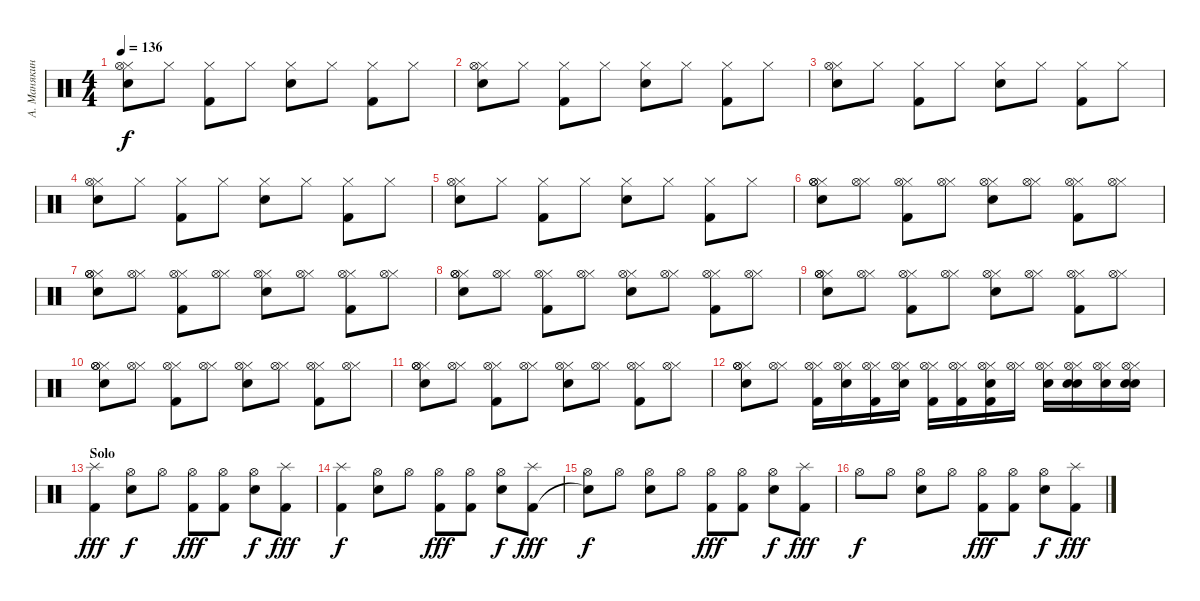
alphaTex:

\track ("А. Манякин" "А. Манякин") {instrument percussion}
\staff {score}
\articulation defaults
\ts (4 4)
\tempo 136
\clef neutral
\ks c
("Hi-Hat (closed)" "Snare (hit) 2" "Hi-Hat (open)").8{dy f} "Hi-Hat (closed)".8 ("Hi-Hat (closed)" "Kick (hit) 2").8 "Hi-Hat (closed)".8 ("Hi-Hat (closed)" "Snare (hit) 2").8 "Hi-Hat (closed)".8 ("Hi-Hat (closed)" "Kick (hit) 2").8 "Hi-Hat (closed)".8 |
("Hi-Hat (closed)" "Snare (hit) 2" "Hi-Hat (open)").8 "Hi-Hat (closed)".8 ("Hi-Hat (closed)" "Kick (hit) 2").8 "Hi-Hat (closed)".8 ("Hi-Hat (closed)" "Snare (hit) 2").8 "Hi-Hat (closed)".8 ("Hi-Hat (closed)" "Kick (hit) 2").8 "Hi-Hat (closed)".8 |
("Hi-Hat (closed)" "Snare (hit) 2" "Hi-Hat (open)").8 "Hi-Hat (closed)".8 ("Hi-Hat (closed)" "Kick (hit) 2").8 "Hi-Hat (closed)".8 ("Hi-Hat (closed)" "Snare (hit) 2").8 "Hi-Hat (closed)".8 ("Hi-Hat (closed)" "Kick (hit) 2").8 "Hi-Hat (closed)".8 |
("Hi-Hat (closed)" "Snare (hit) 2" "Hi-Hat (open)").8 "Hi-Hat (closed)".8 ("Hi-Hat (closed)" "Kick (hit) 2").8 "Hi-Hat (closed)".8 ("Hi-Hat (closed)" "Snare (hit) 2").8 "Hi-Hat (closed)".8 ("Hi-Hat (closed)" "Kick (hit) 2").8 "Hi-Hat (closed)".8 |
("Hi-Hat (closed)" "Snare (hit) 2" "Hi-Hat (open)").8 "Hi-Hat (closed)".8 ("Hi-Hat (closed)" "Kick (hit) 2").8 "Hi-Hat (closed)".8 ("Hi-Hat (closed)" "Snare (hit) 2").8 "Hi-Hat (closed)".8 ("Hi-Hat (closed)" "Kick (hit) 2").8 "Hi-Hat (closed)".8 |
("Hi-Hat (closed)" "Snare (hit) 2" "Hi-Hat (open)" "Hi-Hat (open)").8 ("Hi-Hat (closed)" "Hi-Hat (open)").8 ("Hi-Hat (closed)" "Kick (hit) 2" "Hi-Hat (open)").8 ("Hi-Hat (closed)" "Hi-Hat (open)").8 ("Hi-Hat (closed)" "Snare (hit) 2" "Hi-Hat (open)").8 ("Hi-Hat (closed)" "Hi-Hat (open)").8 ("Hi-Hat (closed)" "Kick (hit) 2" "Hi-Hat (open)").8 ("Hi-Hat (closed)" "Hi-Hat (open)").8 |
("Hi-Hat (closed)" "Snare (hit) 2" "Hi-Hat (open)" "Hi-Hat (open)").8 ("Hi-Hat (closed)" "Hi-Hat (open)").8 ("Hi-Hat (closed)" "Kick (hit) 2" "Hi-Hat (open)").8 ("Hi-Hat (closed)" "Hi-Hat (open)").8 ("Hi-Hat (closed)" "Snare (hit) 2" "Hi-Hat (open)").8 ("Hi-Hat (closed)" "Hi-Hat (open)").8 ("Hi-Hat (closed)" "Kick (hit) 2" "Hi-Hat (open)").8 ("Hi-Hat (closed)" "Hi-Hat (open)").8 |
("Hi-Hat (closed)" "Snare (hit) 2" "Hi-Hat (open)" "Hi-Hat (open)").8 ("Hi-Hat (closed)" "Hi-Hat (open)").8 ("Hi-Hat (closed)" "Kick (hit) 2" "Hi-Hat (open)").8 ("Hi-Hat (closed)" "Hi-Hat (open)").8 ("Hi-Hat (closed)" "Snare (hit) 2" "Hi-Hat (open)").8 ("Hi-Hat (closed)" "Hi-Hat (open)").8 ("Hi-Hat (closed)" "Kick (hit) 2" "Hi-Hat (open)").8 ("Hi-Hat (closed)" "Hi-Hat (open)").8 |
("Hi-Hat (closed)" "Snare (hit) 2" "Hi-Hat (open)" "Hi-Hat (open)").8 ("Hi-Hat (closed)" "Hi-Hat (open)").8 ("Hi-Hat (closed)" "Kick (hit) 2" "Hi-Hat (open)").8 ("Hi-Hat (closed)" "Hi-Hat (open)").8 ("Hi-Hat (closed)" "Snare (hit) 2" "Hi-Hat (open)").8 ("Hi-Hat (closed)" "Hi-Hat (open)").8 ("Hi-Hat (closed)" "Kick (hit) 2" "Hi-Hat (open)").8 ("Hi-Hat (closed)" "Hi-Hat (open)").8 |
("Hi-Hat (closed)" "Snare (hit) 2" "Hi-Hat (open)" "Hi-Hat (open)").8 ("Hi-Hat (closed)" "Hi-Hat (open)").8 ("Hi-Hat (closed)" "Kick (hit) 2" "Hi-Hat (open)").8 ("Hi-Hat (closed)" "Hi-Hat (open)").8 ("Hi-Hat (closed)" "Snare (hit) 2" "Hi-Hat (open)").8 ("Hi-Hat (closed)" "Hi-Hat (open)").8 ("Hi-Hat (closed)" "Kick (hit) 2" "Hi-Hat (open)").8 ("Hi-Hat (closed)" "Hi-Hat (open)").8 |
("Hi-Hat (closed)" "Snare (hit) 2" "Hi-Hat (open)" "Hi-Hat (open)").8 ("Hi-Hat (closed)" "Hi-Hat (open)").8 ("Hi-Hat (closed)" "Kick (hit) 2" "Hi-Hat (open)").8 ("Hi-Hat (closed)" "Hi-Hat (open)").8 ("Hi-Hat (closed)" "Snare (hit) 2" "Hi-Hat (open)").8 ("Hi-Hat (closed)" "Hi-Hat (open)").8 ("Hi-Hat (closed)" "Kick (hit) 2" "Hi-Hat (open)").8 ("Hi-Hat (closed)" "Hi-Hat (open)").8 |
("Hi-Hat (closed)" "Snare (hit) 2" "Hi-Hat (open)" "Hi-Hat (open)").8 ("Hi-Hat (closed)" "Hi-Hat (open)").8 ("Hi-Hat (closed)" "Kick (hit) 2" "Hi-Hat (open)").16 ("Hi-Hat (closed)" "Snare (hit) 2" "Hi-Hat (open)").16 ("Hi-Hat (closed)" "Kick (hit) 2" "Hi-Hat (open)").16 ("Hi-Hat (closed)" "Snare (hit) 2" "Hi-Hat (open)").16 ("Hi-Hat (closed)" "Kick (hit) 2" "Hi-Hat (open)").16 ("Hi-Hat (closed)" "Kick (hit) 2" "Hi-Hat (open)").16 ("Hi-Hat (closed)" "Kick (hit) 2" "Snare (hit) 2" "Hi-Hat (open)").16 ("Hi-Hat (closed)" "Hi-Hat (open)").16 ("Hi-Hat (closed)" "Snare (hit) 2" "Hi-Hat (open)").16 ("Hi-Hat (closed)" "Snare (hit) 2" "Snare (hit) 2" "Hi-Hat (open)").16 ("Hi-Hat (closed)" "Snare (hit) 2" "Hi-Hat (open)").16 ("Hi-Hat (closed)" "Snare (hit) 2" "Snare (hit) 2" "Hi-Hat (open)").16 |
\section ("" "Solo")
("Kick (hit) 2" "Splash (hit)").4{dy fff} ("Hi-Hat (open)" "Electric Snare (hit)").8{dy f} "Hi-Hat (open)".8 ("Kick (hit) 2" "Hi-Hat (open)").8{dy fff} ("Kick (hit) 2" "Hi-Hat (open)").8 ("Hi-Hat (open)" "Electric Snare (hit)").8{dy f} ("Kick (hit) 2" "Splash (hit)").8{dy fff} |
("Kick (hit) 2" "Splash (hit)").4{dy f} ("Hi-Hat (open)" "Electric Snare (hit)").8 "Hi-Hat (open)".8 ("Kick (hit) 2" "Hi-Hat (open)").8{dy fff} ("Kick (hit) 2" "Hi-Hat (open)").8 ("Hi-Hat (open)" "Electric Snare (hit)").8{dy f} ("Kick (hit) 2" "Splash (hit)").8{dy fff} |
("Snare (hit)"{t} "Hi-Hat (open)").8{dy f} "Hi-Hat (open)".8 ("Hi-Hat (open)" "Electric Snare (hit)").8 "Hi-Hat (open)".8 ("Kick (hit) 2" "Hi-Hat (open)").8{dy fff} ("Kick (hit) 2" "Hi-Hat (open)").8 ("Hi-Hat (open)" "Electric Snare (hit)").8{dy f} ("Kick (hit) 2" "Splash (hit)").8{dy fff} |
"Hi-Hat (open)".8{dy f} "Hi-Hat (open)".8 ("Hi-Hat (open)" "Electric Snare (hit)").8 "Hi-Hat (open)".8 ("Kick (hit) 2" "Hi-Hat (open)").8{dy fff} ("Kick (hit) 2" "Hi-Hat (open)").8 ("Hi-Hat (open)" "Electric Snare (hit)").8{dy f} ("Kick (hit) 2" "Splash (hit)").8{dy fff}
